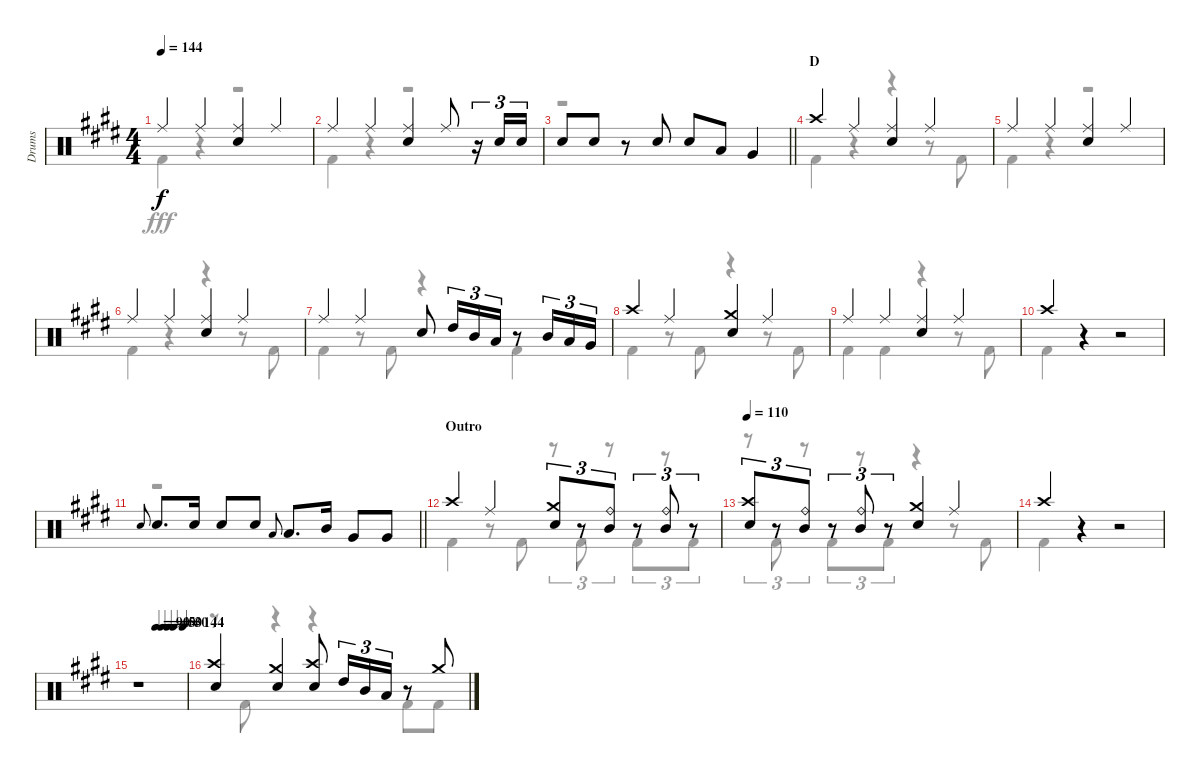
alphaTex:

\track ("Drums" "Drums") {instrument percussion}
\staff {score}
\articulation defaults
\voice
\ts (4 4)
\tempo 144
\clef neutral
\ks e "Ride (middle)".4{dy f} "Ride (middle)".4
("Ride (middle)" "Snare (hit) 2").4 "Ride (middle)".4 |
"Ride (middle)".4 "Ride (middle)".4 ("Ride (middle)" "Snare (hit) 2").4 "Ride (middle)".8 r.16{tu (3 2)} "Snare (hit) 2".16{tu (3 2)} "Snare (hit) 2".16{tu (3 2)} |
\barLineRight lightlight "Snare (hit) 2".8 "Snare (hit) 2".8
r.8 "Snare (hit) 2".8 "Snare (hit) 2".8 "Low Tom (hit)".8 "Very Low Tom (hit)".4 |
\section ("" "D")
"Crash high (hit)".4 "Ride (middle)".4 ("Ride (middle)" "Snare (hit) 2").4 "Ride (middle)".4 |
"Ride (middle)".4 "Ride (middle)".4 ("Ride (middle)" "Snare (hit) 2").4 "Ride (middle)".4 |
"Ride (middle)".4 "Ride (middle)".4 ("Ride (middle)" "Snare (hit) 2").4 "Ride (middle)".4 |
"Ride (middle)".4 "Ride (middle)".4 "Snare (hit) 2".8 "High Tom (hit)".16{tu (3 2)} "Mid Tom (hit)".16{tu (3 2)} "Low Tom (hit)".16{tu (3 2)} r.8 "Mid Tom (hit)".16{tu (3 2)} "Low Tom (hit)".16{tu (3 2)} "Very Low Tom (hit)".16{tu (3 2)} |
"Crash high (hit)".4 "Ride (middle)".4 ("Crash medium (hit)" "Snare (hit) 2").4 "Ride (middle)".4 |
"Ride (middle)".4 "Ride (middle)".4 ("Ride (middle)" "Snare (hit) 2").4 "Ride (middle)".4 |
"Crash high (hit)".4 r.4 r.2 |
\barLineRight lightlight "Snare (hit) 2".8{gr onbeat} "Snare (hit) 2".8{d} "Snare (hit) 2".16 "Snare (hit) 2".8 "Snare (hit) 2".8 "Low Tom (hit)".8{gr onbeat} "Low Tom (hit)".8{d} "Mid Tom (hit)".16 "Very Low Tom (hit)".8 "Very Low Tom (hit)".8
|
\section ("" "Outro")
"Crash high (hit)".4 "Ride (middle)".4 ("Crash medium (hit)" "Snare (hit) 2").8{tu (3 2)} r.8{tu (3 2)} ("Ride (bell)" "Mid Tom (hit)").8{tu (3 2)} r.8{tu (3 2)} ("Ride (bell)" "Mid Tom (hit)").8{tu (3 2)} r.8{tu (3 2)} |
\tempo 110
("Crash high (hit)" "Snare (hit) 2").8{tu (3 2)} r.8{tu (3 2)} ("Ride (bell)" "Mid Tom (hit)").8{tu (3 2)} r.8{tu (3 2)} ("Ride (bell)" "Mid Tom (hit)").8{tu (3 2)} r.8{tu (3 2)} ("Crash medium (hit)" "Snare (hit) 2").4 "Ride (middle)".4 |
"Crash high (hit)".4 r.4 r.2 |
\tempo (90 0.375)
\tempo (40 0.5)
\tempo (50 0.625)
\tempo (30 0.75)
\tempo (144 0.9375)
r.1 |
("Crash high (hit)" "Snare (hit) 2").4 ("Crash medium (hit)" "Snare (hit) 2").4 ("Crash high (hit)" "Snare (hit) 2").8 "High Tom (hit)".16{tu (3 2)} "Mid Tom (hit)".16{tu (3 2)} "Low Tom (hit)".16{tu (3 2)} r.8 "Crash medium (hit)".8
\voice
\clef neutral
\ottava regular
\simile none
\ks e "Kick (hit) 2".4{dy fff}
r.4 r.2 |
"Kick (hit) 2".4 r.4 r.2 |
\barLineRight lightlight
r.1 |
"Kick (hit) 2".4 r.4 r.4 r.8 "Kick (hit) 2".8 |
"Kick (hit) 2".4 r.4 r.2 |
"Kick (hit) 2".4 r.4 r.4 r.8 "Kick (hit) 2".8 |
"Kick (hit) 2".4 r.8 "Kick (hit) 2".8 r.4 "Kick (hit) 2".4 |
"Kick (hit) 2".4 r.8 "Kick (hit) 2".8 r.4 r.8 "Kick (hit) 2".8 |
"Kick (hit) 2".4 "Kick (hit) 2".4 r.4 r.8 "Kick (hit) 2".8 |
"Kick (hit) 2".4 r.4 r.2 |
\barLineRight lightlight
r.1 |
"Kick (hit) 2".4 r.8 "Kick (hit) 2".8 r.8{tu (3 2)} "Kick (hit) 2".8{tu (3 2)} r.8{tu (3 2)} "Kick (hit) 2".8{tu (3 2)} r.8{tu (3 2)} "Kick (hit) 2".8{tu (3 2)} |
r.8{tu (3 2)} "Kick (hit) 2".8{tu (3 2)} r.8{tu (3 2)} "Kick (hit) 2".8{tu (3 2)} r.8{tu (3 2)} "Kick (hit) 2".8{tu (3 2)} r.4 r.8 "Kick (hit) 2".8 |
"Kick (hit) 2".4 r.4 r.2 |
r.1 |
r.8 "Kick (hit) 2".8 r.4 r.4 "Kick (hit) 2".8 "Kick (hit) 2".8
